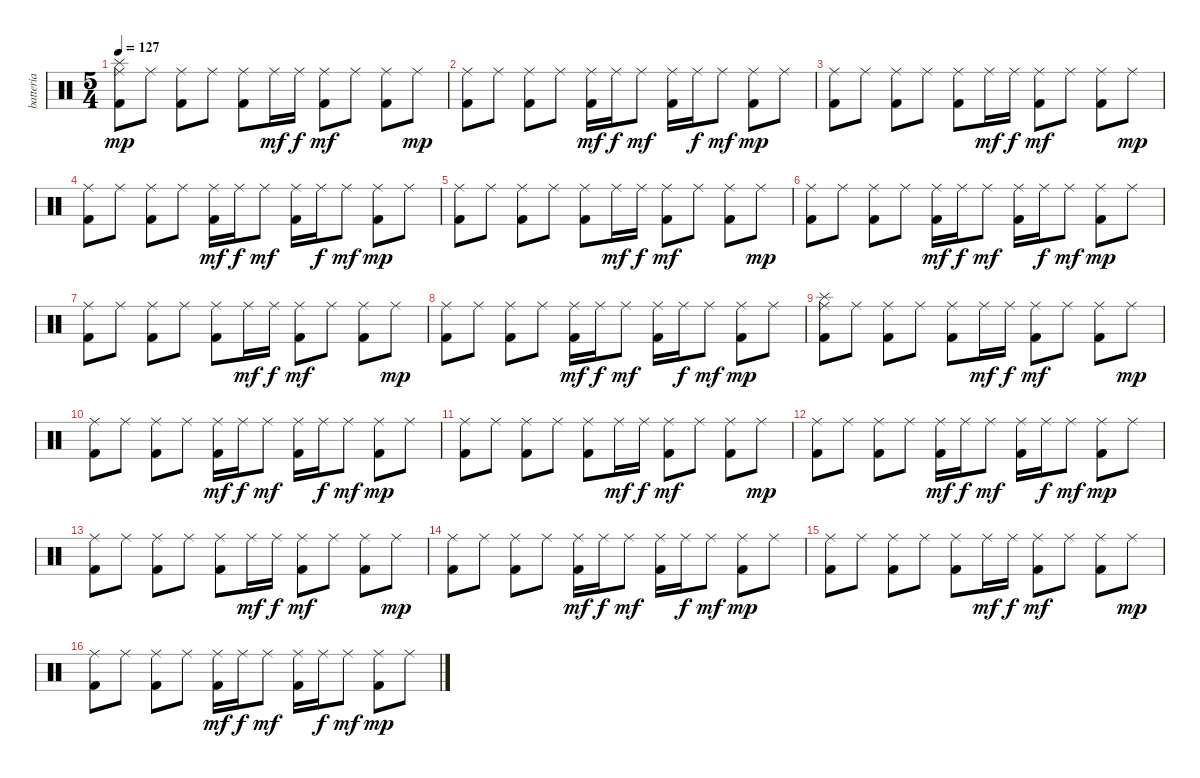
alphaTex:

\track ("batteria" "batteria") {instrument percussion}
\staff {score}
\articulation defaults
\ts (5 4)
\tempo 127
\clef neutral
\ks c
("Splash (hit)" "Ride (middle)" "Kick (hit) 2").8{dy mp} "Ride (middle)".8 ("Ride (middle)" "Kick (hit) 2").8 "Ride (middle)".8 ("Ride (middle)" "Kick (hit) 2").8 "Ride (middle)".16{dy mf} "Ride (middle)".16{dy f} ("Ride (middle)" "Kick (hit) 2").8{dy mf} "Ride (middle)".8 ("Ride (middle)" "Kick (hit) 2").8 "Ride (middle)".8{dy mp} |
("Ride (middle)" "Kick (hit) 2").8 "Ride (middle)".8 ("Ride (middle)" "Kick (hit) 2").8 "Ride (middle)".8 ("Ride (middle)" "Kick (hit) 2").16{dy mf} "Ride (middle)".16{dy f} "Ride (middle)".8{dy mf} ("Ride (middle)" "Kick (hit) 2").16 "Ride (middle)".16{dy f} "Ride (middle)".8{dy mf} ("Ride (middle)" "Kick (hit) 2").8{dy mp} "Ride (middle)".8 |
("Ride (middle)" "Kick (hit) 2").8 "Ride (middle)".8 ("Ride (middle)" "Kick (hit) 2").8 "Ride (middle)".8 ("Ride (middle)" "Kick (hit) 2").8 "Ride (middle)".16{dy mf} "Ride (middle)".16{dy f} ("Ride (middle)" "Kick (hit) 2").8{dy mf} "Ride (middle)".8 ("Ride (middle)" "Kick (hit) 2").8 "Ride (middle)".8{dy mp} |
("Ride (middle)" "Kick (hit) 2").8 "Ride (middle)".8 ("Ride (middle)" "Kick (hit) 2").8 "Ride (middle)".8 ("Ride (middle)" "Kick (hit) 2").16{dy mf} "Ride (middle)".16{dy f} "Ride (middle)".8{dy mf} ("Ride (middle)" "Kick (hit) 2").16 "Ride (middle)".16{dy f} "Ride (middle)".8{dy mf} ("Ride (middle)" "Kick (hit) 2").8{dy mp} "Ride (middle)".8 |
("Ride (middle)" "Kick (hit) 2").8 "Ride (middle)".8 ("Ride (middle)" "Kick (hit) 2").8 "Ride (middle)".8 ("Ride (middle)" "Kick (hit) 2").8 "Ride (middle)".16{dy mf} "Ride (middle)".16{dy f} ("Ride (middle)" "Kick (hit) 2").8{dy mf} "Ride (middle)".8 ("Ride (middle)" "Kick (hit) 2").8 "Ride (middle)".8{dy mp} |
("Ride (middle)" "Kick (hit) 2").8 "Ride (middle)".8 ("Ride (middle)" "Kick (hit) 2").8 "Ride (middle)".8 ("Ride (middle)" "Kick (hit) 2").16{dy mf} "Ride (middle)".16{dy f} "Ride (middle)".8{dy mf} ("Ride (middle)" "Kick (hit) 2").16 "Ride (middle)".16{dy f} "Ride (middle)".8{dy mf} ("Ride (middle)" "Kick (hit) 2").8{dy mp} "Ride (middle)".8 |
("Ride (middle)" "Kick (hit) 2").8 "Ride (middle)".8 ("Ride (middle)" "Kick (hit) 2").8 "Ride (middle)".8 ("Ride (middle)" "Kick (hit) 2").8 "Ride (middle)".16{dy mf} "Ride (middle)".16{dy f} ("Ride (middle)" "Kick (hit) 2").8{dy mf} "Ride (middle)".8 ("Ride (middle)" "Kick (hit) 2").8 "Ride (middle)".8{dy mp} |
("Ride (middle)" "Kick (hit) 2").8 "Ride (middle)".8 ("Ride (middle)" "Kick (hit) 2").8 "Ride (middle)".8 ("Ride (middle)" "Kick (hit) 2").16{dy mf} "Ride (middle)".16{dy f} "Ride (middle)".8{dy mf} ("Ride (middle)" "Kick (hit) 2").16 "Ride (middle)".16{dy f} "Ride (middle)".8{dy mf} ("Ride (middle)" "Kick (hit) 2").8{dy mp} "Ride (middle)".8 |
("Splash (hit)" "Ride (middle)" "Kick (hit) 2").8 "Ride (middle)".8 ("Ride (middle)" "Kick (hit) 2").8 "Ride (middle)".8 ("Ride (middle)" "Kick (hit) 2").8 "Ride (middle)".16{dy mf} "Ride (middle)".16{dy f} ("Ride (middle)" "Kick (hit) 2").8{dy mf} "Ride (middle)".8 ("Ride (middle)" "Kick (hit) 2").8 "Ride (middle)".8{dy mp} |
("Ride (middle)" "Kick (hit) 2").8 "Ride (middle)".8 ("Ride (middle)" "Kick (hit) 2").8 "Ride (middle)".8 ("Ride (middle)" "Kick (hit) 2").16{dy mf} "Ride (middle)".16{dy f} "Ride (middle)".8{dy mf} ("Ride (middle)" "Kick (hit) 2").16 "Ride (middle)".16{dy f} "Ride (middle)".8{dy mf} ("Ride (middle)" "Kick (hit) 2").8{dy mp} "Ride (middle)".8 |
("Ride (middle)" "Kick (hit) 2").8 "Ride (middle)".8 ("Ride (middle)" "Kick (hit) 2").8 "Ride (middle)".8 ("Ride (middle)" "Kick (hit) 2").8 "Ride (middle)".16{dy mf} "Ride (middle)".16{dy f} ("Ride (middle)" "Kick (hit) 2").8{dy mf} "Ride (middle)".8 ("Ride (middle)" "Kick (hit) 2").8 "Ride (middle)".8{dy mp} |
("Ride (middle)" "Kick (hit) 2").8 "Ride (middle)".8 ("Ride (middle)" "Kick (hit) 2").8 "Ride (middle)".8 ("Ride (middle)" "Kick (hit) 2").16{dy mf} "Ride (middle)".16{dy f} "Ride (middle)".8{dy mf} ("Ride (middle)" "Kick (hit) 2").16 "Ride (middle)".16{dy f} "Ride (middle)".8{dy mf} ("Ride (middle)" "Kick (hit) 2").8{dy mp} "Ride (middle)".8 |
("Ride (middle)" "Kick (hit) 2").8 "Ride (middle)".8 ("Ride (middle)" "Kick (hit) 2").8 "Ride (middle)".8 ("Ride (middle)" "Kick (hit) 2").8 "Ride (middle)".16{dy mf} "Ride (middle)".16{dy f} ("Ride (middle)" "Kick (hit) 2").8{dy mf} "Ride (middle)".8 ("Ride (middle)" "Kick (hit) 2").8 "Ride (middle)".8{dy mp} |
("Ride (middle)" "Kick (hit) 2").8 "Ride (middle)".8 ("Ride (middle)" "Kick (hit) 2").8 "Ride (middle)".8 ("Ride (middle)" "Kick (hit) 2").16{dy mf} "Ride (middle)".16{dy f} "Ride (middle)".8{dy mf} ("Ride (middle)" "Kick (hit) 2").16 "Ride (middle)".16{dy f} "Ride (middle)".8{dy mf} ("Ride (middle)" "Kick (hit) 2").8{dy mp} "Ride (middle)".8 |
("Ride (middle)" "Kick (hit) 2").8 "Ride (middle)".8 ("Ride (middle)" "Kick (hit) 2").8 "Ride (middle)".8 ("Ride (middle)" "Kick (hit) 2").8 "Ride (middle)".16{dy mf} "Ride (middle)".16{dy f} ("Ride (middle)" "Kick (hit) 2").8{dy mf} "Ride (middle)".8 ("Ride (middle)" "Kick (hit) 2").8 "Ride (middle)".8{dy mp} |
("Ride (middle)" "Kick (hit) 2").8 "Ride (middle)".8 ("Ride (middle)" "Kick (hit) 2").8 "Ride (middle)".8 ("Ride (middle)" "Kick (hit) 2").16{dy mf} "Ride (middle)".16{dy f} "Ride (middle)".8{dy mf} ("Ride (middle)" "Kick (hit) 2").16 "Ride (middle)".16{dy f} "Ride (middle)".8{dy mf} ("Ride (middle)" "Kick (hit) 2").8{dy mp} "Ride (middle)".8
